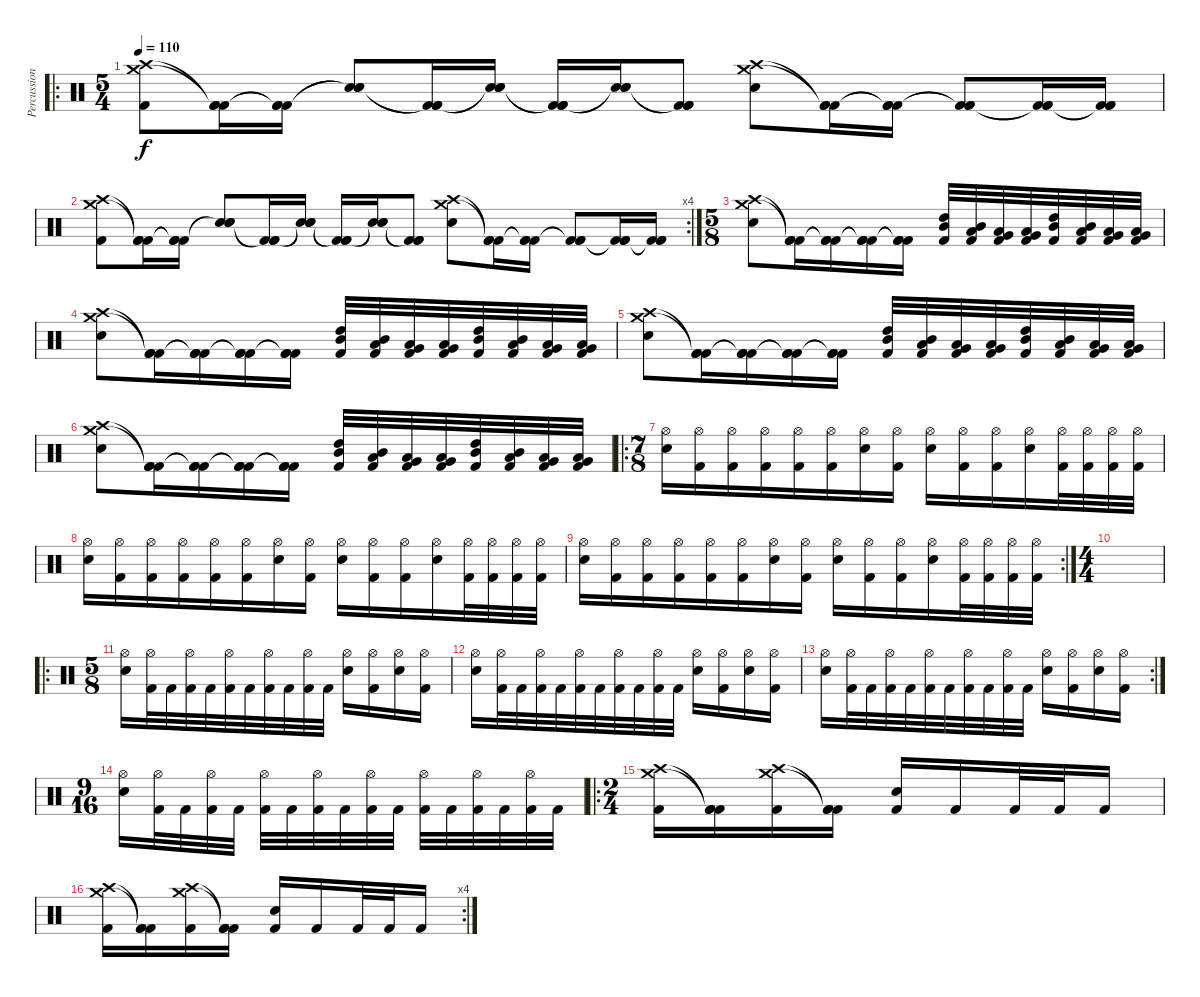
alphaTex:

\track ("Percussion" "Percussion") {instrument percussion}
\staff {score}
\articulation defaults
\ro
\ts (5 4)
\tempo 110
\clef neutral
\ks c
("Crash high (hit)" "Crash medium (hit)" "Kick (hit) 2").8{dy f} ("Kick (hit) 2"{t} "Kick (hit) 2"{t} "Kick (hit) 2").16 ("Kick (hit) 2"{t} "Kick (hit) 2"{t} "Kick (hit) 2").16 ("Snare (hit) 2"{t} "Snare (hit) 2"{t} "Snare (hit) 2").8 ("Kick (hit) 2"{t} "Kick (hit) 2"{t} "Kick (hit) 2").16 ("Snare (hit) 2"{t} "Snare (hit) 2"{t} "Snare (hit) 2").16 ("Kick (hit) 2"{t} "Kick (hit) 2"{t} "Kick (hit) 2").16 ("Snare (hit) 2"{t} "Snare (hit) 2"{t} "Snare (hit) 2").16 ("Kick (hit) 2"{t} "Kick (hit) 2"{t} "Kick (hit) 2").8 ("Crash high (hit)" "Crash medium (hit)" "Snare (hit) 2").8 ("Kick (hit) 2"{t} "Kick (hit) 2"{t} "Kick (hit) 2").16 ("Kick (hit) 2"{t} "Kick (hit) 2"{t} "Kick (hit) 2").16 ("Kick (hit) 2"{t} "Kick (hit) 2"{t} "Kick (hit) 2").8 ("Kick (hit) 2"{t} "Kick (hit) 2"{t} "Kick (hit) 2").16 ("Kick (hit) 2"{t} "Kick (hit) 2"{t} "Kick (hit) 2").16 |
\rc 4
("Crash high (hit)" "Crash medium (hit)" "Kick (hit) 2").8 ("Kick (hit) 2"{t} "Kick (hit) 2"{t} "Kick (hit) 2").16 ("Kick (hit) 2"{t} "Kick (hit) 2"{t} "Kick (hit) 2").16 ("Snare (hit) 2"{t} "Snare (hit) 2"{t} "Snare (hit) 2").8 ("Kick (hit) 2"{t} "Kick (hit) 2"{t} "Kick (hit) 2").16 ("Snare (hit) 2"{t} "Snare (hit) 2"{t} "Snare (hit) 2").16 ("Kick (hit) 2"{t} "Kick (hit) 2"{t} "Kick (hit) 2").16 ("Snare (hit) 2"{t} "Snare (hit) 2"{t} "Snare (hit) 2").16 ("Kick (hit) 2"{t} "Kick (hit) 2"{t} "Kick (hit) 2").8 ("Crash high (hit)" "Crash medium (hit)" "Snare (hit) 2").8 ("Kick (hit) 2"{t} "Kick (hit) 2"{t} "Kick (hit) 2").16 ("Kick (hit) 2"{t} "Kick (hit) 2"{t} "Kick (hit) 2").16 ("Kick (hit) 2"{t} "Kick (hit) 2"{t} "Kick (hit) 2").8 ("Kick (hit) 2"{t} "Kick (hit) 2"{t} "Kick (hit) 2").16 ("Kick (hit) 2"{t} "Kick (hit) 2"{t} "Kick (hit) 2").16 |
\ts (5 8)
("Crash high (hit)" "Crash medium (hit)" "Snare (hit) 2").8 ("Kick (hit) 2"{t} "Kick (hit) 2"{t} "Kick (hit) 2").16 ("Kick (hit) 2"{t} "Kick (hit) 2"{t} "Kick (hit) 2").16 ("Kick (hit) 2"{t} "Kick (hit) 2"{t} "Kick (hit) 2").16 ("Kick (hit) 2"{t} "Kick (hit) 2"{t} "Kick (hit) 2").16 ("High Tom (hit)" "Mid Tom (hit)" "Kick (hit) 2").32 ("Mid Tom (hit)" "Low Tom (hit)" "Kick (hit) 2").32 ("Low Tom (hit)" "Very Low Tom (hit)" "Kick (hit) 2").32 ("Very Low Tom (hit)" "Low Floor Tom (hit)" "Kick (hit) 2").32 ("High Tom (hit)" "Mid Tom (hit)" "Kick (hit) 2").32 ("Mid Tom (hit)" "Low Tom (hit)" "Kick (hit) 2").32 ("Low Tom (hit)" "Very Low Tom (hit)" "Kick (hit) 2").32 ("Very Low Tom (hit)" "Low Floor Tom (hit)" "Kick (hit) 2").32 |
("Crash high (hit)" "Crash medium (hit)" "Snare (hit) 2").8 ("Kick (hit) 2"{t} "Kick (hit) 2"{t} "Kick (hit) 2").16 ("Kick (hit) 2"{t} "Kick (hit) 2"{t} "Kick (hit) 2").16 ("Kick (hit) 2"{t} "Kick (hit) 2"{t} "Kick (hit) 2").16 ("Kick (hit) 2"{t} "Kick (hit) 2"{t} "Kick (hit) 2").16 ("High Tom (hit)" "Mid Tom (hit)" "Kick (hit) 2").32 ("Mid Tom (hit)" "Low Tom (hit)" "Kick (hit) 2").32 ("Low Tom (hit)" "Very Low Tom (hit)" "Kick (hit) 2").32 ("Very Low Tom (hit)" "Low Floor Tom (hit)" "Kick (hit) 2").32 ("High Tom (hit)" "Mid Tom (hit)" "Kick (hit) 2").32 ("Mid Tom (hit)" "Low Tom (hit)" "Kick (hit) 2").32 ("Low Tom (hit)" "Very Low Tom (hit)" "Kick (hit) 2").32 ("Very Low Tom (hit)" "Low Floor Tom (hit)" "Kick (hit) 2").32 |
("Crash high (hit)" "Crash medium (hit)" "Snare (hit) 2").8 ("Kick (hit) 2"{t} "Kick (hit) 2"{t} "Kick (hit) 2").16 ("Kick (hit) 2"{t} "Kick (hit) 2"{t} "Kick (hit) 2").16 ("Kick (hit) 2"{t} "Kick (hit) 2"{t} "Kick (hit) 2").16 ("Kick (hit) 2"{t} "Kick (hit) 2"{t} "Kick (hit) 2").16 ("High Tom (hit)" "Mid Tom (hit)" "Kick (hit) 2").32 ("Mid Tom (hit)" "Low Tom (hit)" "Kick (hit) 2").32 ("Low Tom (hit)" "Very Low Tom (hit)" "Kick (hit) 2").32 ("Very Low Tom (hit)" "Low Floor Tom (hit)" "Kick (hit) 2").32 ("High Tom (hit)" "Mid Tom (hit)" "Kick (hit) 2").32 ("Mid Tom (hit)" "Low Tom (hit)" "Kick (hit) 2").32 ("Low Tom (hit)" "Very Low Tom (hit)" "Kick (hit) 2").32 ("Very Low Tom (hit)" "Low Floor Tom (hit)" "Kick (hit) 2").32 |
("Crash high (hit)" "Crash medium (hit)" "Snare (hit) 2").8 ("Kick (hit) 2"{t} "Kick (hit) 2"{t} "Kick (hit) 2").16 ("Kick (hit) 2"{t} "Kick (hit) 2"{t} "Kick (hit) 2").16 ("Kick (hit) 2"{t} "Kick (hit) 2"{t} "Kick (hit) 2").16 ("Kick (hit) 2"{t} "Kick (hit) 2"{t} "Kick (hit) 2").16 ("High Tom (hit)" "Mid Tom (hit)" "Kick (hit) 2").32 ("Mid Tom (hit)" "Low Tom (hit)" "Kick (hit) 2").32 ("Low Tom (hit)" "Very Low Tom (hit)" "Kick (hit) 2").32 ("Very Low Tom (hit)" "Low Floor Tom (hit)" "Kick (hit) 2").32 ("High Tom (hit)" "Mid Tom (hit)" "Kick (hit) 2").32 ("Mid Tom (hit)" "Low Tom (hit)" "Kick (hit) 2").32 ("Low Tom (hit)" "Very Low Tom (hit)" "Kick (hit) 2").32 ("Very Low Tom (hit)" "Low Floor Tom (hit)" "Kick (hit) 2").32 |
\ro
\ts (7 8)
("Hi-Hat (open)" "Snare (hit) 2").16 ("Hi-Hat (open)" "Kick (hit) 2").16 ("Hi-Hat (open)" "Kick (hit) 2").16 ("Hi-Hat (open)" "Kick (hit) 2").16 ("Hi-Hat (open)" "Kick (hit) 2").16 ("Hi-Hat (open)" "Kick (hit) 2").16 ("Hi-Hat (open)" "Snare (hit) 2").16 ("Hi-Hat (open)" "Kick (hit) 2").16 ("Hi-Hat (open)" "Snare (hit) 2").16 ("Hi-Hat (open)" "Kick (hit) 2").16 ("Hi-Hat (open)" "Kick (hit) 2").16 ("Hi-Hat (open)" "Snare (hit) 2").16 ("Hi-Hat (open)" "Kick (hit) 2").32 ("Hi-Hat (open)" "Kick (hit) 2").32 ("Hi-Hat (open)" "Kick (hit) 2").32 ("Hi-Hat (open)" "Kick (hit) 2").32 |
("Hi-Hat (open)" "Snare (hit) 2").16 ("Hi-Hat (open)" "Kick (hit) 2").16 ("Hi-Hat (open)" "Kick (hit) 2").16 ("Hi-Hat (open)" "Kick (hit) 2").16 ("Hi-Hat (open)" "Kick (hit) 2").16 ("Hi-Hat (open)" "Kick (hit) 2").16 ("Hi-Hat (open)" "Snare (hit) 2").16 ("Hi-Hat (open)" "Kick (hit) 2").16 ("Hi-Hat (open)" "Snare (hit) 2").16 ("Hi-Hat (open)" "Kick (hit) 2").16 ("Hi-Hat (open)" "Kick (hit) 2").16 ("Hi-Hat (open)" "Snare (hit) 2").16 ("Hi-Hat (open)" "Kick (hit) 2").32 ("Hi-Hat (open)" "Kick (hit) 2").32 ("Hi-Hat (open)" "Kick (hit) 2").32 ("Hi-Hat (open)" "Kick (hit) 2").32 |
\rc 2
("Hi-Hat (open)" "Snare (hit) 2").16 ("Hi-Hat (open)" "Kick (hit) 2").16 ("Hi-Hat (open)" "Kick (hit) 2").16 ("Hi-Hat (open)" "Kick (hit) 2").16 ("Hi-Hat (open)" "Kick (hit) 2").16 ("Hi-Hat (open)" "Kick (hit) 2").16 ("Hi-Hat (open)" "Snare (hit) 2").16 ("Hi-Hat (open)" "Kick (hit) 2").16 ("Hi-Hat (open)" "Snare (hit) 2").16 ("Hi-Hat (open)" "Kick (hit) 2").16 ("Hi-Hat (open)" "Kick (hit) 2").16 ("Hi-Hat (open)" "Snare (hit) 2").16 ("Hi-Hat (open)" "Kick (hit) 2").32 ("Hi-Hat (open)" "Kick (hit) 2").32 ("Hi-Hat (open)" "Kick (hit) 2").32 ("Hi-Hat (open)" "Kick (hit) 2").32 |
\ts (4 4)
|
\ro
\ts (5 8)
("Hi-Hat (open)" "Snare (hit) 2").16 ("Hi-Hat (open)" "Kick (hit) 2").32 "Kick (hit) 2".32 ("Hi-Hat (open)" "Kick (hit) 2").32 "Kick (hit) 2".32 ("Hi-Hat (open)" "Kick (hit) 2").32 "Kick (hit) 2".32 ("Hi-Hat (open)" "Kick (hit) 2").32 "Kick (hit) 2".32 ("Hi-Hat (open)" "Kick (hit) 2").32 "Kick (hit) 2".32 ("Hi-Hat (open)" "Snare (hit) 2").16 ("Hi-Hat (open)" "Kick (hit) 2").16 ("Hi-Hat (open)" "Snare (hit) 2").16 ("Hi-Hat (open)" "Kick (hit) 2").16 |
("Hi-Hat (open)" "Snare (hit) 2").16 ("Hi-Hat (open)" "Kick (hit) 2").32 "Kick (hit) 2".32 ("Hi-Hat (open)" "Kick (hit) 2").32 "Kick (hit) 2".32 ("Hi-Hat (open)" "Kick (hit) 2").32 "Kick (hit) 2".32 ("Hi-Hat (open)" "Kick (hit) 2").32 "Kick (hit) 2".32 ("Hi-Hat (open)" "Kick (hit) 2").32 "Kick (hit) 2".32 ("Hi-Hat (open)" "Snare (hit) 2").16 ("Hi-Hat (open)" "Kick (hit) 2").16 ("Hi-Hat (open)" "Snare (hit) 2").16 ("Hi-Hat (open)" "Kick (hit) 2").16 |
\rc 2
("Hi-Hat (open)" "Snare (hit) 2").16 ("Hi-Hat (open)" "Kick (hit) 2").32 "Kick (hit) 2".32 ("Hi-Hat (open)" "Kick (hit) 2").32 "Kick (hit) 2".32 ("Hi-Hat (open)" "Kick (hit) 2").32 "Kick (hit) 2".32 ("Hi-Hat (open)" "Kick (hit) 2").32 "Kick (hit) 2".32 ("Hi-Hat (open)" "Kick (hit) 2").32 "Kick (hit) 2".32 ("Hi-Hat (open)" "Snare (hit) 2").16 ("Hi-Hat (open)" "Kick (hit) 2").16 ("Hi-Hat (open)" "Snare (hit) 2").16 ("Hi-Hat (open)" "Kick (hit) 2").16 |
\ts (9 16)
("Hi-Hat (open)" "Snare (hit) 2").16 ("Hi-Hat (open)" "Kick (hit) 2").32 "Kick (hit) 2".32 ("Hi-Hat (open)" "Kick (hit) 2").32 "Kick (hit) 2".32 ("Hi-Hat (open)" "Kick (hit) 2").32 "Kick (hit) 2".32 ("Hi-Hat (open)" "Kick (hit) 2").32 "Kick (hit) 2".32 ("Hi-Hat (open)" "Kick (hit) 2").32 "Kick (hit) 2".32 ("Hi-Hat (open)" "Kick (hit) 2").32 "Kick (hit) 2".32 ("Hi-Hat (open)" "Kick (hit) 2").32 "Kick (hit) 2".32 ("Hi-Hat (open)" "Kick (hit) 2").32 "Kick (hit) 2".32 |
\ro
\ts (2 4)
("Crash high (hit)" "Crash medium (hit)" "Kick (hit) 2").16 ("Kick (hit) 2"{t} "Kick (hit) 2"{t} "Kick (hit) 2").16 ("Crash high (hit)" "Crash medium (hit)" "Kick (hit) 2").16 ("Kick (hit) 2"{t} "Kick (hit) 2"{t} "Kick (hit) 2").16 ("Snare (hit) 2" "Kick (hit) 2").16 "Kick (hit) 2".16 "Kick (hit) 2".32 "Kick (hit) 2".32 "Kick (hit) 2".16 |
\rc 4
("Crash high (hit)" "Crash medium (hit)" "Kick (hit) 2").16 ("Kick (hit) 2"{t} "Kick (hit) 2"{t} "Kick (hit) 2").16 ("Crash high (hit)" "Crash medium (hit)" "Kick (hit) 2").16 ("Kick (hit) 2"{t} "Kick (hit) 2"{t} "Kick (hit) 2").16 ("Snare (hit) 2" "Kick (hit) 2").16 "Kick (hit) 2".16 "Kick (hit) 2".32 "Kick (hit) 2".32 "Kick (hit) 2".16
